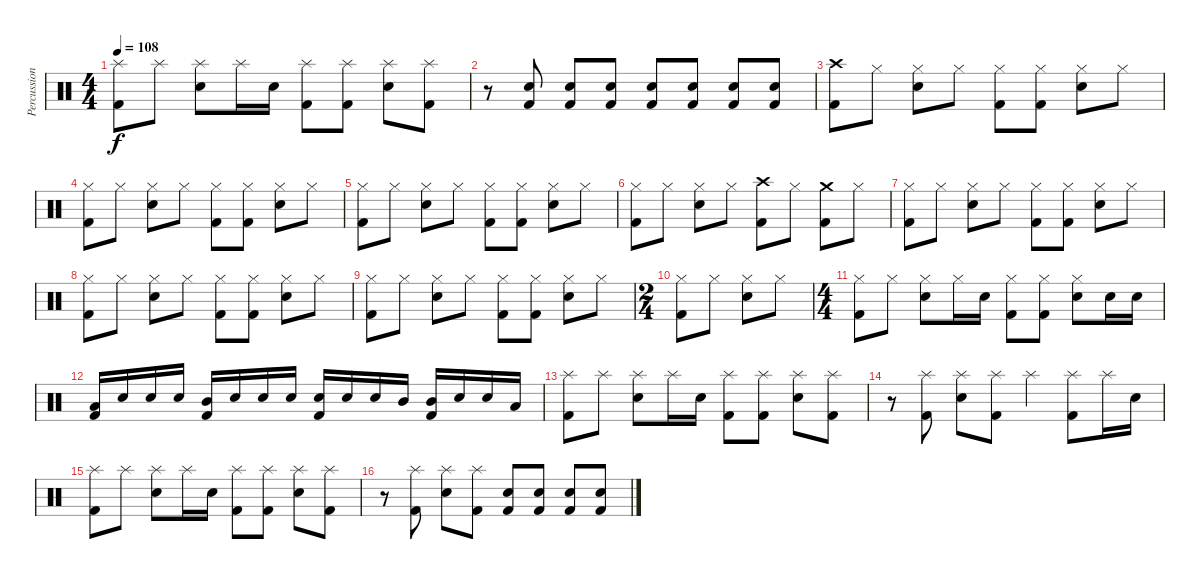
\track ("Percussion" "Percussion") {instrument percussion}
\staff {score}
\articulation defaults
\ts (4 4)
\tempo 108
\clef neutral
\ks c
("Kick (hit) 2" "Splash (hit)").8{dy f} "Splash (hit)".8 ("Snare (hit) 2" "Splash (hit)").8 "Splash (hit)".16 "Snare (hit) 2".16 ("Kick (hit) 2" "Splash (hit)").8 ("Kick (hit) 2" "Splash (hit)").8 ("Snare (hit) 2" "Splash (hit)").8 ("Kick (hit) 2" "Splash (hit)").8 |
r.8 ("Kick (hit) 2" "Snare (hit) 2").8 ("Kick (hit) 2" "Snare (hit) 2").8 ("Kick (hit) 2" "Snare (hit) 2").8 ("Kick (hit) 2" "Snare (hit) 2").8 ("Kick (hit) 2" "Snare (hit) 2").8 ("Kick (hit) 2" "Snare (hit) 2").8 ("Kick (hit) 2" "Snare (hit) 2").8 |
("Kick (hit) 2" "Crash high (hit)").8 "Hi-Hat (closed)".8 ("Snare (hit) 2" "Hi-Hat (closed)").8 "Hi-Hat (closed)".8 ("Kick (hit) 2" "Hi-Hat (closed)").8 ("Kick (hit) 2" "Hi-Hat (closed)").8 ("Snare (hit) 2" "Hi-Hat (closed)").8 "Hi-Hat (closed)".8 |
("Kick (hit) 2" "Hi-Hat (closed)").8 "Hi-Hat (closed)".8 ("Snare (hit) 2" "Hi-Hat (closed)").8 "Hi-Hat (closed)".8 ("Kick (hit) 2" "Hi-Hat (closed)").8 ("Kick (hit) 2" "Hi-Hat (closed)").8 ("Snare (hit) 2" "Hi-Hat (closed)").8 "Hi-Hat (closed)".8 |
("Kick (hit) 2" "Hi-Hat (closed)").8 "Hi-Hat (closed)".8 ("Snare (hit) 2" "Hi-Hat (closed)").8 "Hi-Hat (closed)".8 ("Kick (hit) 2" "Hi-Hat (closed)").8 ("Kick (hit) 2" "Hi-Hat (closed)").8 ("Snare (hit) 2" "Hi-Hat (closed)").8 "Hi-Hat (closed)".8 |
("Kick (hit) 2" "Hi-Hat (closed)").8 "Hi-Hat (closed)".8 ("Snare (hit) 2" "Hi-Hat (closed)").8 "Hi-Hat (closed)".8 ("Kick (hit) 2" "Crash high (hit)").8 "Hi-Hat (closed)".8 ("Kick (hit) 2" "Crash medium (hit)").8 "Hi-Hat (closed)".8 |
("Kick (hit) 2" "Hi-Hat (closed)").8 "Hi-Hat (closed)".8 ("Snare (hit) 2" "Hi-Hat (closed)").8 "Hi-Hat (closed)".8 ("Kick (hit) 2" "Hi-Hat (closed)").8 ("Kick (hit) 2" "Hi-Hat (closed)").8 ("Snare (hit) 2" "Hi-Hat (closed)").8 "Hi-Hat (closed)".8 |
("Kick (hit) 2" "Hi-Hat (closed)").8 "Hi-Hat (closed)".8 ("Snare (hit) 2" "Hi-Hat (closed)").8 "Hi-Hat (closed)".8 ("Kick (hit) 2" "Hi-Hat (closed)").8 ("Kick (hit) 2" "Hi-Hat (closed)").8 ("Snare (hit) 2" "Hi-Hat (closed)").8 "Hi-Hat (closed)".8 |
("Kick (hit) 2" "Hi-Hat (closed)").8 "Hi-Hat (closed)".8 ("Snare (hit) 2" "Hi-Hat (closed)").8 "Hi-Hat (closed)".8 ("Kick (hit) 2" "Hi-Hat (closed)").8 ("Kick (hit) 2" "Hi-Hat (closed)").8 ("Snare (hit) 2" "Hi-Hat (closed)").8 "Hi-Hat (closed)".8 |
\ts (2 4)
("Kick (hit) 2" "Hi-Hat (closed)").8 "Hi-Hat (closed)".8 ("Snare (hit) 2" "Hi-Hat (closed)").8 "Hi-Hat (closed)".8 |
\ts (4 4)
("Kick (hit) 2" "Hi-Hat (closed)").8 "Hi-Hat (closed)".8 ("Snare (hit) 2" "Hi-Hat (closed)").8 "Hi-Hat (closed)".16 "Snare (hit) 2".16 ("Kick (hit) 2" "Hi-Hat (closed)").8 ("Kick (hit) 2" "Hi-Hat (closed)").8 ("Snare (hit) 2" "Hi-Hat (closed)").8 "Snare (hit) 2".16 "Snare (hit) 2".16 |
("Kick (hit) 2" "Low Tom (hit)").16 "Snare (hit) 2".16 "Snare (hit) 2".16 "Snare (hit) 2".16 ("Kick (hit) 2" "Mid Tom (hit)").16 "Snare (hit) 2".16 "Snare (hit) 2".16 "Snare (hit) 2".16 ("Kick (hit) 2" "Snare (hit) 2").16 "Snare (hit) 2".16 "Snare (hit) 2".16 "Mid Tom (hit)".16 ("Kick (hit) 2" "Mid Tom (hit)").16 "Snare (hit) 2".16 "Snare (hit) 2".16 "Low Tom (hit)".16 |
("Kick (hit) 2" "Splash (hit)").8 "Splash (hit)".8 ("Snare (hit) 2" "Splash (hit)").8 "Splash (hit)".16 "Snare (hit) 2".16 ("Kick (hit) 2" "Splash (hit)").8 ("Kick (hit) 2" "Splash (hit)").8 ("Snare (hit) 2" "Splash (hit)").8 ("Kick (hit) 2" "Splash (hit)").8 |
r.8 ("Kick (hit) 2" "Splash (hit)").8 ("Snare (hit) 2" "Splash (hit)").8 ("Kick (hit) 2" "Splash (hit)").8 "Splash (hit)".4 ("Kick (hit) 2" "Splash (hit)").8 "Splash (hit)".16 "Snare (hit) 2".16 |
("Kick (hit) 2" "Splash (hit)").8 "Splash (hit)".8 ("Snare (hit) 2" "Splash (hit)").8 "Splash (hit)".16 "Snare (hit) 2".16 ("Kick (hit) 2" "Splash (hit)").8 ("Kick (hit) 2" "Splash (hit)").8 ("Snare (hit) 2" "Splash (hit)").8 ("Kick (hit) 2" "Splash (hit)").8 |
r.8 ("Kick (hit) 2" "Splash (hit)").8 ("Snare (hit) 2" "Splash (hit)").8 ("Kick (hit) 2" "Splash (hit)").8 ("Kick (hit) 2" "Snare (hit) 2").8 ("Kick (hit) 2" "Snare (hit) 2").8 ("Kick (hit) 2" "Snare (hit) 2").8 ("Kick (hit) 2" "Snare (hit) 2").8
